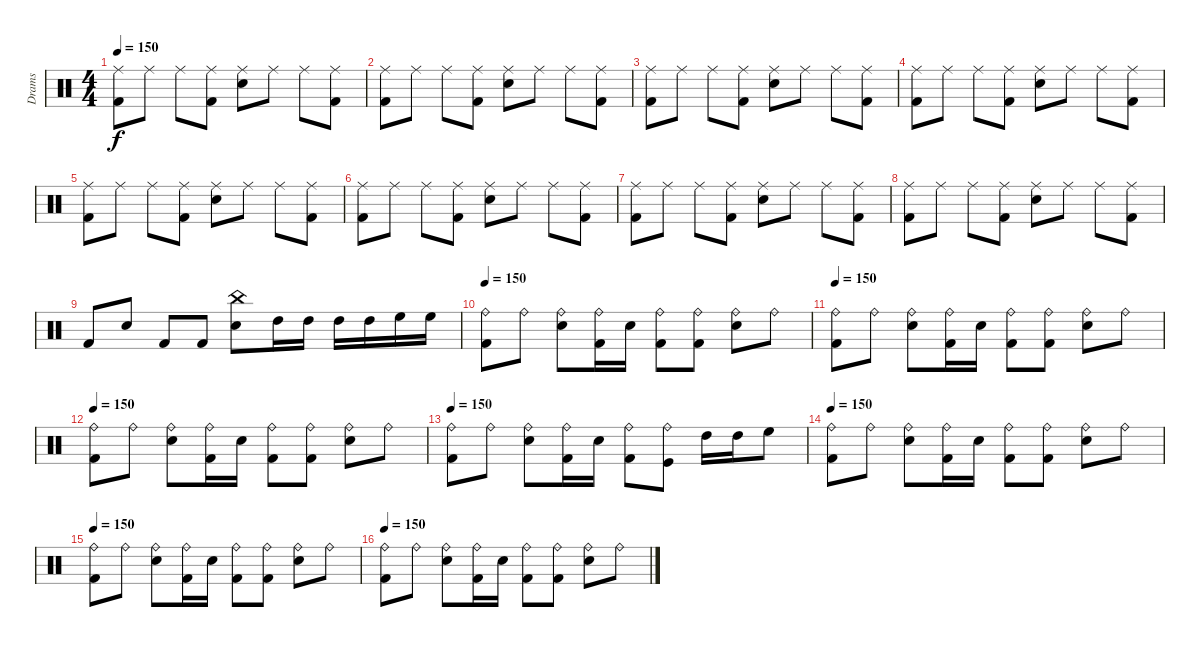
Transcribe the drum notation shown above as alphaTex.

\track ("Drams" "Drams") {instrument percussion}
\staff {score}
\articulation defaults
\ts (4 4)
\tempo 150
\clef neutral
\ks aminor
("Ride (middle)" "Kick (hit) 2").8{dy f} "Ride (middle)".8 "Ride (middle)".8 ("Ride (middle)" "Kick (hit) 2").8 ("Ride (middle)" "Electric Snare (hit)").8 "Ride (middle)".8 "Ride (middle)".8 ("Ride (middle)" "Kick (hit) 2").8 |
("Ride (middle)" "Kick (hit) 2").8 "Ride (middle)".8 "Ride (middle)".8 ("Ride (middle)" "Kick (hit) 2").8 ("Ride (middle)" "Electric Snare (hit)").8 "Ride (middle)".8 "Ride (middle)".8 ("Ride (middle)" "Kick (hit) 2").8 |
("Ride (middle)" "Kick (hit) 2").8 "Ride (middle)".8 "Ride (middle)".8 ("Ride (middle)" "Kick (hit) 2").8 ("Ride (middle)" "Electric Snare (hit)").8 "Ride (middle)".8 "Ride (middle)".8 ("Ride (middle)" "Kick (hit) 2").8 |
("Ride (middle)" "Kick (hit) 2").8 "Ride (middle)".8 "Ride (middle)".8 ("Ride (middle)" "Kick (hit) 2").8 ("Ride (middle)" "Electric Snare (hit)").8 "Ride (middle)".8 "Ride (middle)".8 ("Ride (middle)" "Kick (hit) 2").8 |
("Ride (middle)" "Kick (hit) 2").8 "Ride (middle)".8 "Ride (middle)".8 ("Ride (middle)" "Kick (hit) 2").8 ("Ride (middle)" "Electric Snare (hit)").8 "Ride (middle)".8 "Ride (middle)".8 ("Ride (middle)" "Kick (hit) 2").8 |
("Ride (middle)" "Kick (hit) 2").8 "Ride (middle)".8 "Ride (middle)".8 ("Ride (middle)" "Kick (hit) 2").8 ("Ride (middle)" "Electric Snare (hit)").8 "Ride (middle)".8 "Ride (middle)".8 ("Ride (middle)" "Kick (hit) 2").8 |
("Ride (middle)" "Kick (hit) 2").8 "Ride (middle)".8 "Ride (middle)".8 ("Ride (middle)" "Kick (hit) 2").8 ("Ride (middle)" "Electric Snare (hit)").8 "Ride (middle)".8 "Ride (middle)".8 ("Ride (middle)" "Kick (hit) 2").8 |
("Ride (middle)" "Kick (hit) 2").8 "Ride (middle)".8 "Ride (middle)".8 ("Ride (middle)" "Kick (hit) 2").8 ("Ride (middle)" "Electric Snare (hit)").8 "Ride (middle)".8 "Ride (middle)".8 ("Ride (middle)" "Kick (hit) 2").8 |
"Kick (hit) 2".8 "Electric Snare (hit)".8 "Kick (hit) 2".8 "Kick (hit) 2".8 ("Electric Snare (hit)" "China (hit)").8 "High Tom (hit)".16 "High Tom (hit)".16 "High Tom (hit)".16 "High Tom (hit)".16 "High Floor Tom (hit)".16 "High Floor Tom (hit)".16 |
\tempo 150
("Kick (hit) 2" "Ride (bell)").8 "Ride (bell)".8 ("Electric Snare (hit)" "Ride (bell)").8 ("Kick (hit) 2" "Ride (bell)").16 "Electric Snare (hit)".16 ("Kick (hit) 2" "Ride (bell)").8 ("Kick (hit) 2" "Ride (bell)").8 ("Electric Snare (hit)" "Ride (bell)").8 "Ride (bell)".8 |
\tempo 150
("Kick (hit) 2" "Ride (bell)").8 "Ride (bell)".8 ("Electric Snare (hit)" "Ride (bell)").8 ("Kick (hit) 2" "Ride (bell)").16 "Electric Snare (hit)".16 ("Kick (hit) 2" "Ride (bell)").8 ("Kick (hit) 2" "Ride (bell)").8 ("Electric Snare (hit)" "Ride (bell)").8 "Ride (bell)".8 |
\tempo 150
("Kick (hit) 2" "Ride (bell)").8 "Ride (bell)".8 ("Electric Snare (hit)" "Ride (bell)").8 ("Kick (hit) 2" "Ride (bell)").16 "Electric Snare (hit)".16 ("Kick (hit) 2" "Ride (bell)").8 ("Kick (hit) 2" "Ride (bell)").8 ("Electric Snare (hit)" "Ride (bell)").8 "Ride (bell)".8 |
\tempo 150
("Kick (hit) 2" "Ride (bell)").8 "Ride (bell)".8 ("Electric Snare (hit)" "Ride (bell)").8 ("Kick (hit) 2" "Ride (bell)").16 "Electric Snare (hit)".16 ("Kick (hit) 2" "Ride (bell)").8 ("Kick (hit)" "Ride (bell)").8 "High Tom (hit)".16 "High Tom (hit)".16 "High Floor Tom (hit)".8 |
\tempo 150
("Kick (hit) 2" "Ride (bell)").8 "Ride (bell)".8 ("Electric Snare (hit)" "Ride (bell)").8 ("Kick (hit) 2" "Ride (bell)").16 "Electric Snare (hit)".16 ("Kick (hit) 2" "Ride (bell)").8 ("Kick (hit) 2" "Ride (bell)").8 ("Electric Snare (hit)" "Ride (bell)").8 "Ride (bell)".8 |
\tempo 150
("Kick (hit) 2" "Ride (bell)").8 "Ride (bell)".8 ("Electric Snare (hit)" "Ride (bell)").8 ("Kick (hit) 2" "Ride (bell)").16 "Electric Snare (hit)".16 ("Kick (hit) 2" "Ride (bell)").8 ("Kick (hit) 2" "Ride (bell)").8 ("Electric Snare (hit)" "Ride (bell)").8 "Ride (bell)".8 |
\tempo 150
("Kick (hit) 2" "Ride (bell)").8 "Ride (bell)".8 ("Electric Snare (hit)" "Ride (bell)").8 ("Kick (hit) 2" "Ride (bell)").16 "Electric Snare (hit)".16 ("Kick (hit) 2" "Ride (bell)").8 ("Kick (hit) 2" "Ride (bell)").8 ("Electric Snare (hit)" "Ride (bell)").8 "Ride (bell)".8
